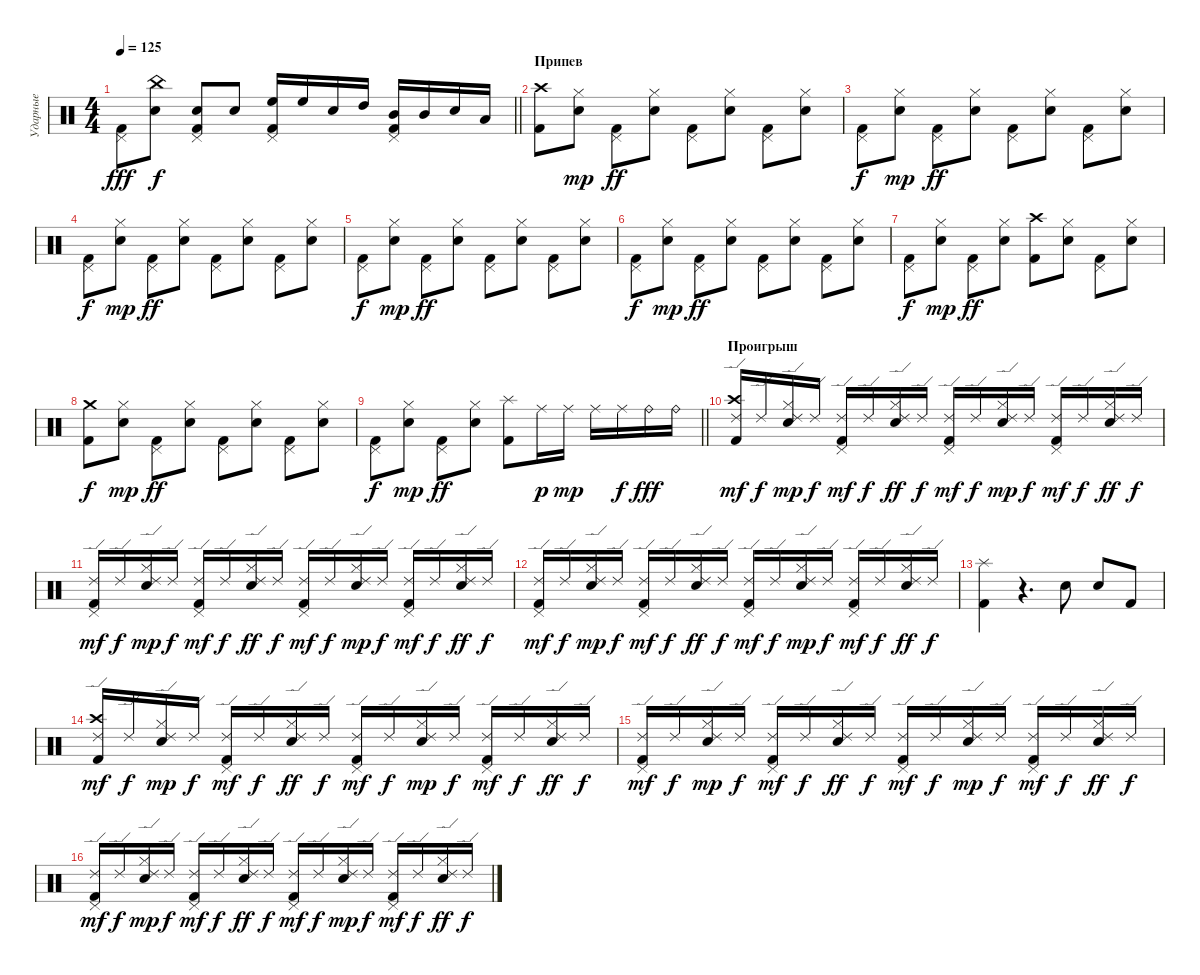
\track ("Ударные" "Ударные") {instrument percussion}
\staff {score}
\articulation defaults
\ts (4 4)
\tempo 125
\clef neutral
\barLineRight lightlight
\ks c
("Pedal Hi-Hat (hit)" "Kick (hit) 2").8{dy fff} ("China (hit)" "Electric Snare (hit)").8{dy f} ("Pedal Hi-Hat (hit)" "Electric Snare (hit)" "Kick (hit) 2").8 "Electric Snare (hit)".8 ("Pedal Hi-Hat (hit)" "High Floor Tom (hit)" "Kick (hit) 2").16 "High Floor Tom (hit)".16 "Electric Snare (hit)".16 "High Tom (hit)".16 ("Pedal Hi-Hat (hit)" "Mid Tom (hit)" "Kick (hit) 2").16 "Mid Tom (hit)".16 "Electric Snare (hit)".16 "Low Tom (hit)".16 |
\section ("" "Припев")
("Crash high (hit)" "Kick (hit) 2").8 ("Hi-Hat (closed)" "Electric Snare (hit)").8{dy mp} ("Pedal Hi-Hat (hit)" "Kick (hit) 2").8{dy ff} ("Hi-Hat (closed)" "Electric Snare (hit)").8 ("Pedal Hi-Hat (hit)" "Kick (hit) 2").8 ("Hi-Hat (closed)" "Electric Snare (hit)").8 ("Pedal Hi-Hat (hit)" "Kick (hit) 2").8 ("Hi-Hat (closed)" "Electric Snare (hit)").8 |
("Pedal Hi-Hat (hit)" "Kick (hit) 2").8{dy f} ("Hi-Hat (closed)" "Electric Snare (hit)").8{dy mp} ("Pedal Hi-Hat (hit)" "Kick (hit) 2").8{dy ff} ("Hi-Hat (closed)" "Electric Snare (hit)").8 ("Pedal Hi-Hat (hit)" "Kick (hit) 2").8 ("Hi-Hat (closed)" "Electric Snare (hit)").8 ("Pedal Hi-Hat (hit)" "Kick (hit) 2").8 ("Hi-Hat (closed)" "Electric Snare (hit)").8 |
("Pedal Hi-Hat (hit)" "Kick (hit) 2").8{dy f} ("Hi-Hat (closed)" "Electric Snare (hit)").8{dy mp} ("Pedal Hi-Hat (hit)" "Kick (hit) 2").8{dy ff} ("Hi-Hat (closed)" "Electric Snare (hit)").8 ("Pedal Hi-Hat (hit)" "Kick (hit) 2").8 ("Hi-Hat (closed)" "Electric Snare (hit)").8 ("Pedal Hi-Hat (hit)" "Kick (hit) 2").8 ("Hi-Hat (closed)" "Electric Snare (hit)").8 |
("Pedal Hi-Hat (hit)" "Kick (hit) 2").8{dy f} ("Hi-Hat (closed)" "Electric Snare (hit)").8{dy mp} ("Pedal Hi-Hat (hit)" "Kick (hit) 2").8{dy ff} ("Hi-Hat (closed)" "Electric Snare (hit)").8 ("Pedal Hi-Hat (hit)" "Kick (hit) 2").8 ("Hi-Hat (closed)" "Electric Snare (hit)").8 ("Pedal Hi-Hat (hit)" "Kick (hit) 2").8 ("Hi-Hat (closed)" "Electric Snare (hit)").8 |
("Pedal Hi-Hat (hit)" "Kick (hit) 2").8{dy f} ("Hi-Hat (closed)" "Electric Snare (hit)").8{dy mp} ("Pedal Hi-Hat (hit)" "Kick (hit) 2").8{dy ff} ("Hi-Hat (closed)" "Electric Snare (hit)").8 ("Pedal Hi-Hat (hit)" "Kick (hit) 2").8 ("Hi-Hat (closed)" "Electric Snare (hit)").8 ("Pedal Hi-Hat (hit)" "Kick (hit) 2").8 ("Hi-Hat (closed)" "Electric Snare (hit)").8 |
("Pedal Hi-Hat (hit)" "Kick (hit) 2").8{dy f} ("Hi-Hat (closed)" "Electric Snare (hit)").8{dy mp} ("Pedal Hi-Hat (hit)" "Kick (hit) 2").8{dy ff} ("Hi-Hat (closed)" "Electric Snare (hit)").8 ("Crash high (hit)" "Kick (hit) 2").8 ("Hi-Hat (closed)" "Electric Snare (hit)").8 ("Pedal Hi-Hat (hit)" "Kick (hit) 2").8 ("Hi-Hat (closed)" "Electric Snare (hit)").8 |
("Crash medium (hit)" "Kick (hit) 2").8{dy f} ("Hi-Hat (closed)" "Electric Snare (hit)").8{dy mp} ("Pedal Hi-Hat (hit)" "Kick (hit) 2").8{dy ff} ("Hi-Hat (closed)" "Electric Snare (hit)").8 ("Pedal Hi-Hat (hit)" "Kick (hit) 2").8 ("Hi-Hat (closed)" "Electric Snare (hit)").8 ("Pedal Hi-Hat (hit)" "Kick (hit) 2").8 ("Hi-Hat (closed)" "Electric Snare (hit)").8 |
\barLineRight lightlight
("Pedal Hi-Hat (hit)" "Kick (hit) 2").8{dy f} ("Hi-Hat (closed)" "Electric Snare (hit)").8{dy mp} ("Pedal Hi-Hat (hit)" "Kick (hit) 2").8{dy ff} ("Hi-Hat (closed)" "Electric Snare (hit)").8 ("Splash (hit)" "Kick (hit) 2").8 "Ride (middle)".16{dy p} "Ride (middle)".16{dy mp} "Ride (middle)".16 "Ride (middle)".16{dy f} "Ride (bell)".16{dy fff} "Ride (bell)".16 |
\section ("" "Проигрыш")
("Crash high (hit)" "Ride (edge) 2" "Kick (hit) 2").16{dy mf} "Ride (edge) 2".16{dy f} ("Hi-Hat (closed)" "Ride (edge) 2" "Electric Snare (hit)").16{dy mp} "Ride (edge) 2".16{dy f} ("Pedal Hi-Hat (hit)" "Ride (edge) 2" "Kick (hit) 2").16{dy mf} "Ride (edge) 2".16{dy f} ("Hi-Hat (closed)" "Ride (edge) 2" "Electric Snare (hit)").16{dy ff} "Ride (edge) 2".16{dy f} ("Pedal Hi-Hat (hit)" "Ride (edge) 2" "Kick (hit) 2").16{dy mf} "Ride (edge) 2".16{dy f} ("Hi-Hat (closed)" "Ride (edge) 2" "Electric Snare (hit)").16{dy mp} "Ride (edge) 2".16{dy f} ("Pedal Hi-Hat (hit)" "Ride (edge) 2" "Kick (hit) 2").16{dy mf} "Ride (edge) 2".16{dy f} ("Hi-Hat (closed)" "Ride (edge) 2" "Electric Snare (hit)").16{dy ff} "Ride (edge) 2".16{dy f} |
("Pedal Hi-Hat (hit)" "Ride (edge) 2" "Kick (hit) 2").16{dy mf} "Ride (edge) 2".16{dy f} ("Hi-Hat (closed)" "Ride (edge) 2" "Electric Snare (hit)").16{dy mp} "Ride (edge) 2".16{dy f} ("Pedal Hi-Hat (hit)" "Ride (edge) 2" "Kick (hit) 2").16{dy mf} "Ride (edge) 2".16{dy f} ("Hi-Hat (closed)" "Ride (edge) 2" "Electric Snare (hit)").16{dy ff} "Ride (edge) 2".16{dy f} ("Pedal Hi-Hat (hit)" "Ride (edge) 2" "Kick (hit) 2").16{dy mf} "Ride (edge) 2".16{dy f} ("Hi-Hat (closed)" "Ride (edge) 2" "Electric Snare (hit)").16{dy mp} "Ride (edge) 2".16{dy f} ("Pedal Hi-Hat (hit)" "Ride (edge) 2" "Kick (hit) 2").16{dy mf} "Ride (edge) 2".16{dy f} ("Hi-Hat (closed)" "Ride (edge) 2" "Electric Snare (hit)").16{dy ff} "Ride (edge) 2".16{dy f} |
("Pedal Hi-Hat (hit)" "Ride (edge) 2" "Kick (hit) 2").16{dy mf} "Ride (edge) 2".16{dy f} ("Hi-Hat (closed)" "Ride (edge) 2" "Electric Snare (hit)").16{dy mp} "Ride (edge) 2".16{dy f} ("Pedal Hi-Hat (hit)" "Ride (edge) 2" "Kick (hit) 2").16{dy mf} "Ride (edge) 2".16{dy f} ("Hi-Hat (closed)" "Ride (edge) 2" "Electric Snare (hit)").16{dy ff} "Ride (edge) 2".16{dy f} ("Pedal Hi-Hat (hit)" "Ride (edge) 2" "Kick (hit) 2").16{dy mf} "Ride (edge) 2".16{dy f} ("Hi-Hat (closed)" "Ride (edge) 2" "Electric Snare (hit)").16{dy mp} "Ride (edge) 2".16{dy f} ("Pedal Hi-Hat (hit)" "Ride (edge) 2" "Kick (hit) 2").16{dy mf} "Ride (edge) 2".16{dy f} ("Hi-Hat (closed)" "Ride (edge) 2" "Electric Snare (hit)").16{dy ff} "Ride (edge) 2".16{dy f} |
("Splash (hit)" "Kick (hit) 2").4 r.4{d} "Electric Snare (hit)".8 "Electric Snare (hit)".8 "Kick (hit) 2".8 |
("Crash high (hit)" "Ride (edge) 2" "Kick (hit) 2").16{dy mf} "Ride (edge) 2".16{dy f} ("Hi-Hat (closed)" "Ride (edge) 2" "Electric Snare (hit)").16{dy mp} "Ride (edge) 2".16{dy f} ("Pedal Hi-Hat (hit)" "Ride (edge) 2" "Kick (hit) 2").16{dy mf} "Ride (edge) 2".16{dy f} ("Hi-Hat (closed)" "Ride (edge) 2" "Electric Snare (hit)").16{dy ff} "Ride (edge) 2".16{dy f} ("Pedal Hi-Hat (hit)" "Ride (edge) 2" "Kick (hit) 2").16{dy mf} "Ride (edge) 2".16{dy f} ("Hi-Hat (closed)" "Ride (edge) 2" "Electric Snare (hit)").16{dy mp} "Ride (edge) 2".16{dy f} ("Pedal Hi-Hat (hit)" "Ride (edge) 2" "Kick (hit) 2").16{dy mf} "Ride (edge) 2".16{dy f} ("Hi-Hat (closed)" "Ride (edge) 2" "Electric Snare (hit)").16{dy ff} "Ride (edge) 2".16{dy f} |
("Pedal Hi-Hat (hit)" "Ride (edge) 2" "Kick (hit) 2").16{dy mf} "Ride (edge) 2".16{dy f} ("Hi-Hat (closed)" "Ride (edge) 2" "Electric Snare (hit)").16{dy mp} "Ride (edge) 2".16{dy f} ("Pedal Hi-Hat (hit)" "Ride (edge) 2" "Kick (hit) 2").16{dy mf} "Ride (edge) 2".16{dy f} ("Hi-Hat (closed)" "Ride (edge) 2" "Electric Snare (hit)").16{dy ff} "Ride (edge) 2".16{dy f} ("Pedal Hi-Hat (hit)" "Ride (edge) 2" "Kick (hit) 2").16{dy mf} "Ride (edge) 2".16{dy f} ("Hi-Hat (closed)" "Ride (edge) 2" "Electric Snare (hit)").16{dy mp} "Ride (edge) 2".16{dy f} ("Pedal Hi-Hat (hit)" "Ride (edge) 2" "Kick (hit) 2").16{dy mf} "Ride (edge) 2".16{dy f} ("Hi-Hat (closed)" "Ride (edge) 2" "Electric Snare (hit)").16{dy ff} "Ride (edge) 2".16{dy f} |
("Pedal Hi-Hat (hit)" "Ride (edge) 2" "Kick (hit) 2").16{dy mf} "Ride (edge) 2".16{dy f} ("Hi-Hat (closed)" "Ride (edge) 2" "Electric Snare (hit)").16{dy mp} "Ride (edge) 2".16{dy f} ("Pedal Hi-Hat (hit)" "Ride (edge) 2" "Kick (hit) 2").16{dy mf} "Ride (edge) 2".16{dy f} ("Hi-Hat (closed)" "Ride (edge) 2" "Electric Snare (hit)").16{dy ff} "Ride (edge) 2".16{dy f} ("Pedal Hi-Hat (hit)" "Ride (edge) 2" "Kick (hit) 2").16{dy mf} "Ride (edge) 2".16{dy f} ("Hi-Hat (closed)" "Ride (edge) 2" "Electric Snare (hit)").16{dy mp} "Ride (edge) 2".16{dy f} ("Pedal Hi-Hat (hit)" "Ride (edge) 2" "Kick (hit) 2").16{dy mf} "Ride (edge) 2".16{dy f} ("Hi-Hat (closed)" "Ride (edge) 2" "Electric Snare (hit)").16{dy ff} "Ride (edge) 2".16{dy f}
